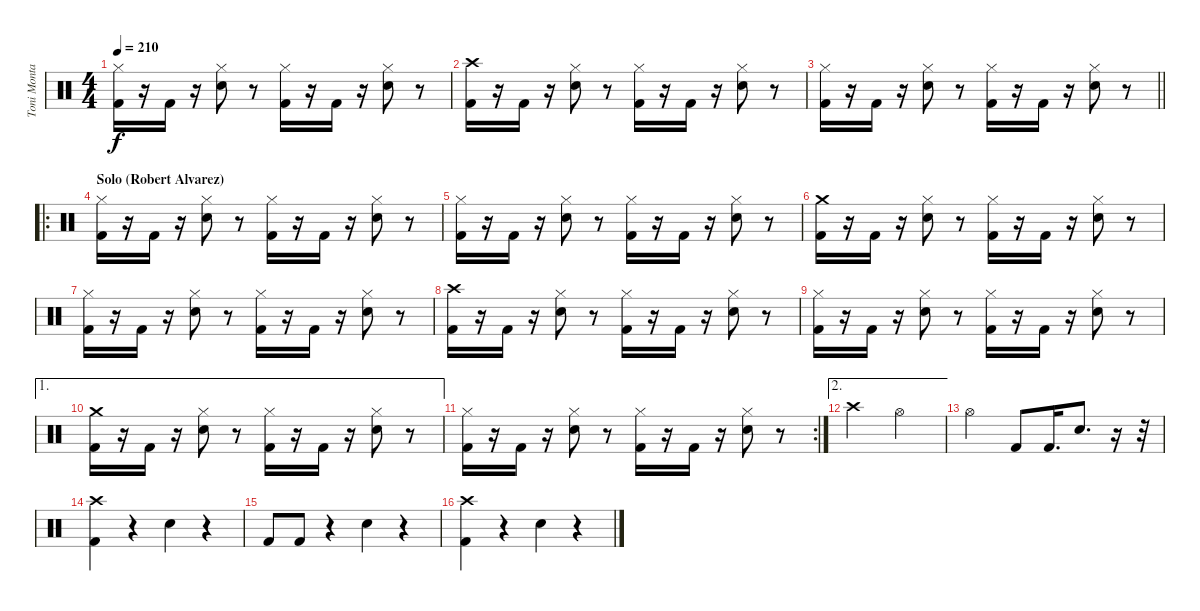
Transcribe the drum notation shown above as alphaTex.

\track ("Toni Montalvo" "Toni Monta") {solo instrument percussion}
\staff {score}
\articulation defaults
\ts (4 4)
\tempo 210
\clef neutral
\ks c
("Kick (hit) 2" "Hi-Hat (closed)").16{dy f} r.16 "Kick (hit) 2".16 r.16 ("Electric Snare (hit)" "Hi-Hat (closed)").8 r.8 ("Kick (hit) 2" "Hi-Hat (closed)").16 r.16 "Kick (hit) 2".16 r.16 ("Electric Snare (hit)" "Hi-Hat (closed)").8 r.8 |
("Kick (hit) 2" "Crash high (hit)").16 r.16 "Kick (hit) 2".16 r.16 ("Electric Snare (hit)" "Hi-Hat (closed)").8 r.8 ("Kick (hit) 2" "Hi-Hat (closed)").16 r.16 "Kick (hit) 2".16 r.16 ("Electric Snare (hit)" "Hi-Hat (closed)").8 r.8 |
\barLineRight lightlight
("Kick (hit) 2" "Hi-Hat (closed)").16 r.16 "Kick (hit) 2".16 r.16 ("Electric Snare (hit)" "Hi-Hat (closed)").8 r.8 ("Kick (hit) 2" "Hi-Hat (closed)").16 r.16 "Kick (hit) 2".16 r.16 ("Electric Snare (hit)" "Hi-Hat (closed)").8 r.8 |
\ro
\section ("" "Solo (Robert Alvarez)")
("Kick (hit) 2" "Hi-Hat (closed)").16 r.16 "Kick (hit) 2".16 r.16 ("Electric Snare (hit)" "Hi-Hat (closed)").8 r.8 ("Kick (hit) 2" "Hi-Hat (closed)").16 r.16 "Kick (hit) 2".16 r.16 ("Electric Snare (hit)" "Hi-Hat (closed)").8 r.8 |
("Kick (hit) 2" "Hi-Hat (closed)").16 r.16 "Kick (hit) 2".16 r.16 ("Electric Snare (hit)" "Hi-Hat (closed)").8 r.8 ("Kick (hit) 2" "Hi-Hat (closed)").16 r.16 "Kick (hit) 2".16 r.16 ("Electric Snare (hit)" "Hi-Hat (closed)").8 r.8 |
("Kick (hit) 2" "Crash medium (hit)").16 r.16 "Kick (hit) 2".16 r.16 ("Electric Snare (hit)" "Hi-Hat (closed)").8 r.8 ("Kick (hit) 2" "Hi-Hat (closed)").16 r.16 "Kick (hit) 2".16 r.16 ("Electric Snare (hit)" "Hi-Hat (closed)").8 r.8 |
("Kick (hit) 2" "Hi-Hat (closed)").16 r.16 "Kick (hit) 2".16 r.16 ("Electric Snare (hit)" "Hi-Hat (closed)").8 r.8 ("Kick (hit) 2" "Hi-Hat (closed)").16 r.16 "Kick (hit) 2".16 r.16 ("Electric Snare (hit)" "Hi-Hat (closed)").8 r.8 |
("Kick (hit) 2" "Crash high (hit)").16 r.16 "Kick (hit) 2".16 r.16 ("Electric Snare (hit)" "Hi-Hat (closed)").8 r.8 ("Kick (hit) 2" "Hi-Hat (closed)").16 r.16 "Kick (hit) 2".16 r.16 ("Electric Snare (hit)" "Hi-Hat (closed)").8 r.8 |
("Kick (hit) 2" "Hi-Hat (closed)").16 r.16 "Kick (hit) 2".16 r.16 ("Electric Snare (hit)" "Hi-Hat (closed)").8 r.8 ("Kick (hit) 2" "Hi-Hat (closed)").16 r.16 "Kick (hit) 2".16 r.16 ("Electric Snare (hit)" "Hi-Hat (closed)").8 r.8 |
\ae 1
("Kick (hit) 2" "Crash medium (hit)").16 r.16 "Kick (hit) 2".16 r.16 ("Electric Snare (hit)" "Hi-Hat (closed)").8 r.8 ("Kick (hit) 2" "Hi-Hat (closed)").16 r.16 "Kick (hit) 2".16 r.16 ("Electric Snare (hit)" "Hi-Hat (closed)").8 r.8 |
\rc 2
("Kick (hit) 2" "Hi-Hat (closed)").16 r.16 "Kick (hit) 2".16 r.16 ("Electric Snare (hit)" "Hi-Hat (closed)").8 r.8 ("Kick (hit) 2" "Hi-Hat (closed)").16 r.16 "Kick (hit) 2".16 r.16 ("Electric Snare (hit)" "Hi-Hat (closed)").8 r.8 |
\ae 2 "Crash high (hit)".2 "Hi-Hat (open)".2
|
"Hi-Hat (open)".2 "Kick (hit) 2".8 "Kick (hit) 2".16{d} "Electric Snare (hit)".8{d} r.16 r.32 |
("Kick (hit) 2" "Crash high (hit)").4 r.4 "Electric Snare (hit)".4 r.4 |
"Kick (hit) 2".8 "Kick (hit) 2".8 r.4 "Electric Snare (hit)".4 r.4 |
("Kick (hit) 2" "Crash high (hit)").4 r.4 "Electric Snare (hit)".4 r.4
